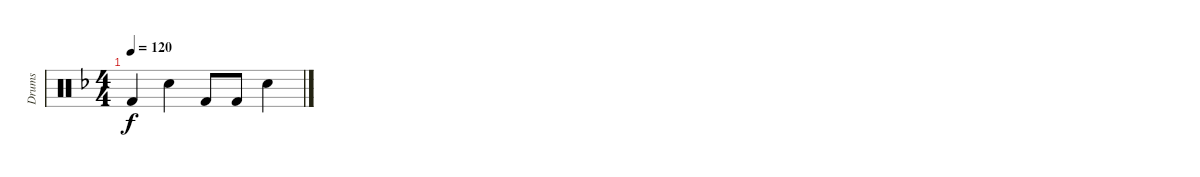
\track ("Drums" "Drums") {instrument percussion}
\staff {score}
\articulation defaults
\ts (4 4)
\tempo 120
\clef neutral
\ks f "Kick (hit) 2".4{dy f} "Snare (hit) 2".4 "Kick (hit) 2".8 "Kick (hit) 2".8 "Snare (hit) 2".4
